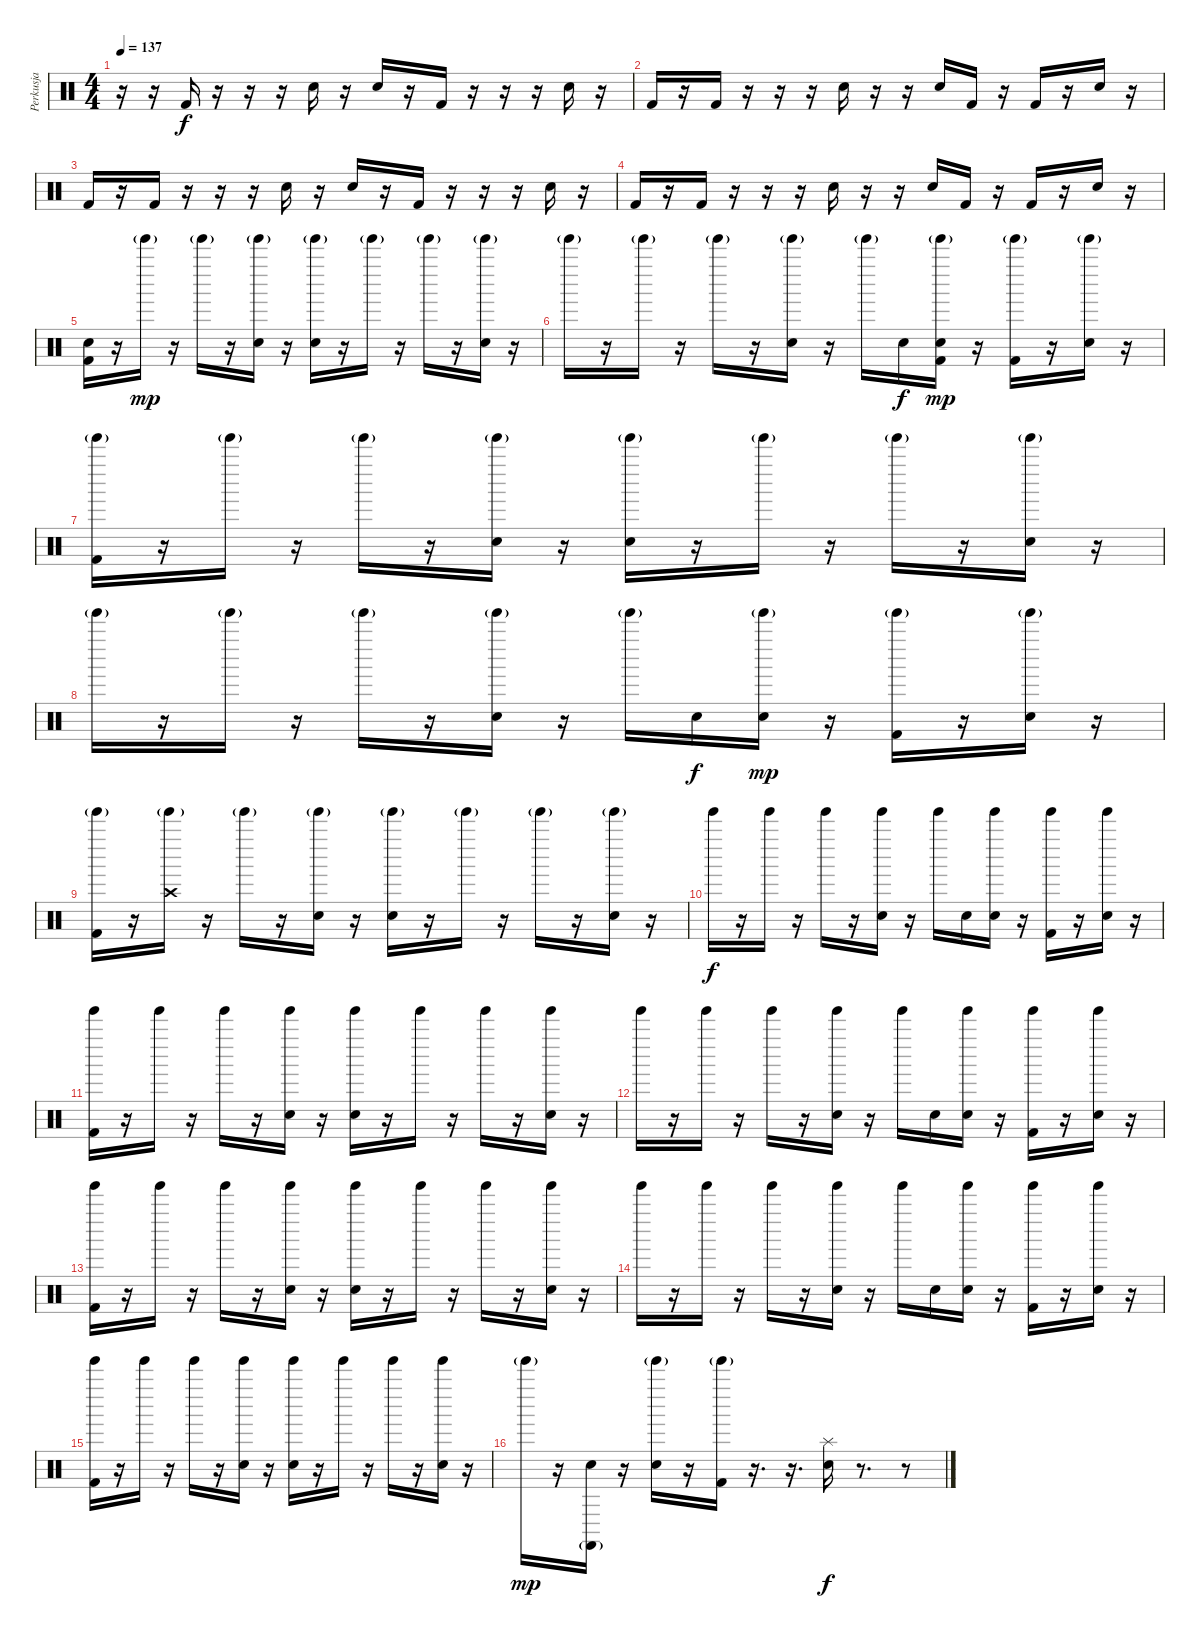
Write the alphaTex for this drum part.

\track ("Perkusja" "Perkusja") {instrument percussion}
\staff {score}
\articulation defaults
\ts (4 4)
\tempo 137
\clef neutral
\ks c
r.16{dy f} r.16 "Kick (hit) 2".16 r.16 r.16 r.16 "Hand Clap (hit)".16 r.16 "Hand Clap (hit)".16 r.16 "Kick (hit) 2".16 r.16 r.16 r.16 "Hand Clap (hit)".16 r.16 |
"Kick (hit) 2".16 r.16 "Kick (hit) 2".16 r.16 r.16 r.16 "Hand Clap (hit)".16 r.16 r.16 "Hand Clap (hit)".16 "Kick (hit) 2".16 r.16 "Kick (hit) 2".16 r.16 "Hand Clap (hit)".16 r.16 |
"Kick (hit) 2".16 r.16 "Kick (hit) 2".16 r.16 r.16 r.16 "Hand Clap (hit)".16 r.16 "Hand Clap (hit)".16 r.16 "Kick (hit) 2".16 r.16 r.16 r.16 "Hand Clap (hit)".16 r.16 |
"Kick (hit) 2".16 r.16 "Kick (hit) 2".16 r.16 r.16 r.16 "Hand Clap (hit)".16 r.16 r.16 "Hand Clap (hit)".16 "Kick (hit) 2".16 r.16 "Kick (hit) 2".16 r.16 "Electric Snare (hit)".16 r.16 |
("Electric Snare (hit)" "Kick (hit) 2").16 r.16 "Tinkle Bell (hit)"{g}.16{dy mp} r.16 "Tinkle Bell (hit)"{g}.16 r.16 ("Electric Snare (hit)" "Tinkle Bell (hit)"{g}).16 r.16 ("Electric Snare (hit)" "Tinkle Bell (hit)"{g}).16 r.16 "Tinkle Bell (hit)"{g}.16 r.16 "Tinkle Bell (hit)"{g}.16 r.16 ("Electric Snare (hit)" "Tinkle Bell (hit)"{g}).16 r.16 |
"Tinkle Bell (hit)"{g}.16 r.16 "Tinkle Bell (hit)"{g}.16 r.16 "Tinkle Bell (hit)"{g}.16 r.16 ("Electric Snare (hit)" "Tinkle Bell (hit)"{g}).16 r.16 "Tinkle Bell (hit)"{g}.16 "Electric Snare (hit)".16{dy f} ("Electric Snare (hit)" "Kick (hit) 2" "Tinkle Bell (hit)"{g}).16{dy mp} r.16 ("Kick (hit) 2" "Tinkle Bell (hit)"{g}).16 r.16 ("Electric Snare (hit)" "Tinkle Bell (hit)"{g}).16 r.16 |
("Kick (hit) 2" "Tinkle Bell (hit)"{g}).16 r.16 "Tinkle Bell (hit)"{g}.16 r.16 "Tinkle Bell (hit)"{g}.16 r.16 ("Electric Snare (hit)" "Tinkle Bell (hit)"{g}).16 r.16 ("Electric Snare (hit)" "Tinkle Bell (hit)"{g}).16 r.16 "Tinkle Bell (hit)"{g}.16 r.16 "Tinkle Bell (hit)"{g}.16 r.16 ("Electric Snare (hit)" "Tinkle Bell (hit)"{g}).16 r.16 |
"Tinkle Bell (hit)"{g}.16 r.16 "Tinkle Bell (hit)"{g}.16 r.16 "Tinkle Bell (hit)"{g}.16 r.16 ("Electric Snare (hit)" "Tinkle Bell (hit)"{g}).16 r.16 "Tinkle Bell (hit)"{g}.16 "Electric Snare (hit)".16{dy f} ("Electric Snare (hit)" "Tinkle Bell (hit)"{g}).16{dy mp} r.16 ("Kick (hit) 2" "Tinkle Bell (hit)"{g}).16 r.16 ("Electric Snare (hit)" "Tinkle Bell (hit)"{g}).16 r.16 |
("Kick (hit) 2" "Tinkle Bell (hit)"{g}).16 r.16 ("Crash high (hit)" "Tinkle Bell (hit)"{g}).16 r.16 "Tinkle Bell (hit)"{g}.16 r.16 ("Electric Snare (hit)" "Tinkle Bell (hit)"{g}).16 r.16 ("Electric Snare (hit)" "Tinkle Bell (hit)"{g}).16 r.16 "Tinkle Bell (hit)"{g}.16 r.16 "Tinkle Bell (hit)"{g}.16 r.16 ("Electric Snare (hit)" "Tinkle Bell (hit)"{g}).16 r.16 |
"Tinkle Bell (hit)".16{dy f} r.16 "Tinkle Bell (hit)".16 r.16 "Tinkle Bell (hit)".16 r.16 ("Electric Snare (hit)" "Tinkle Bell (hit)").16 r.16 "Tinkle Bell (hit)".16 "Electric Snare (hit)".16 ("Electric Snare (hit)" "Tinkle Bell (hit)").16 r.16 ("Kick (hit) 2" "Tinkle Bell (hit)").16 r.16 ("Electric Snare (hit)" "Tinkle Bell (hit)").16 r.16 |
("Kick (hit) 2" "Tinkle Bell (hit)").16 r.16 "Tinkle Bell (hit)".16 r.16 "Tinkle Bell (hit)".16 r.16 ("Electric Snare (hit)" "Tinkle Bell (hit)").16 r.16 ("Electric Snare (hit)" "Tinkle Bell (hit)").16 r.16 "Tinkle Bell (hit)".16 r.16 "Tinkle Bell (hit)".16 r.16 ("Electric Snare (hit)" "Tinkle Bell (hit)").16 r.16 |
"Tinkle Bell (hit)".16 r.16 "Tinkle Bell (hit)".16 r.16 "Tinkle Bell (hit)".16 r.16 ("Electric Snare (hit)" "Tinkle Bell (hit)").16 r.16 "Tinkle Bell (hit)".16 "Electric Snare (hit)".16 ("Electric Snare (hit)" "Tinkle Bell (hit)").16 r.16 ("Kick (hit) 2" "Tinkle Bell (hit)").16 r.16 ("Electric Snare (hit)" "Tinkle Bell (hit)").16 r.16 |
("Kick (hit) 2" "Tinkle Bell (hit)").16 r.16 "Tinkle Bell (hit)".16 r.16 "Tinkle Bell (hit)".16 r.16 ("Electric Snare (hit)" "Tinkle Bell (hit)").16 r.16 ("Electric Snare (hit)" "Tinkle Bell (hit)").16 r.16 "Tinkle Bell (hit)".16 r.16 "Tinkle Bell (hit)".16 r.16 ("Electric Snare (hit)" "Tinkle Bell (hit)").16 r.16 |
"Tinkle Bell (hit)".16 r.16 "Tinkle Bell (hit)".16 r.16 "Tinkle Bell (hit)".16 r.16 ("Electric Snare (hit)" "Tinkle Bell (hit)").16 r.16 "Tinkle Bell (hit)".16 "Electric Snare (hit)".16 ("Electric Snare (hit)" "Tinkle Bell (hit)").16 r.16 ("Kick (hit) 2" "Tinkle Bell (hit)").16 r.16 ("Electric Snare (hit)" "Tinkle Bell (hit)").16 r.16 |
("Kick (hit) 2" "Tinkle Bell (hit)").16 r.16 "Tinkle Bell (hit)".16 r.16 "Tinkle Bell (hit)".16 r.16 ("Electric Snare (hit)" "Tinkle Bell (hit)").16 r.16 ("Electric Snare (hit)" "Tinkle Bell (hit)").16 r.16 "Tinkle Bell (hit)".16 r.16 "Tinkle Bell (hit)".16 r.16 ("Electric Snare (hit)" "Tinkle Bell (hit)").16 r.16 |
"Tinkle Bell (hit)"{g}.16{dy mp} r.16 ("Electric Snare (hit)" "Castanets (hit)"{g}).16 r.16 ("Electric Snare (hit)" "Tinkle Bell (hit)"{g}).16 r.16 ("Kick (hit) 2" "Tinkle Bell (hit)"{g}).16 r.16{d} r.16{d} ("Electric Snare (hit)" "Splash (hit)").16{dy f} r.8{d} r.8
